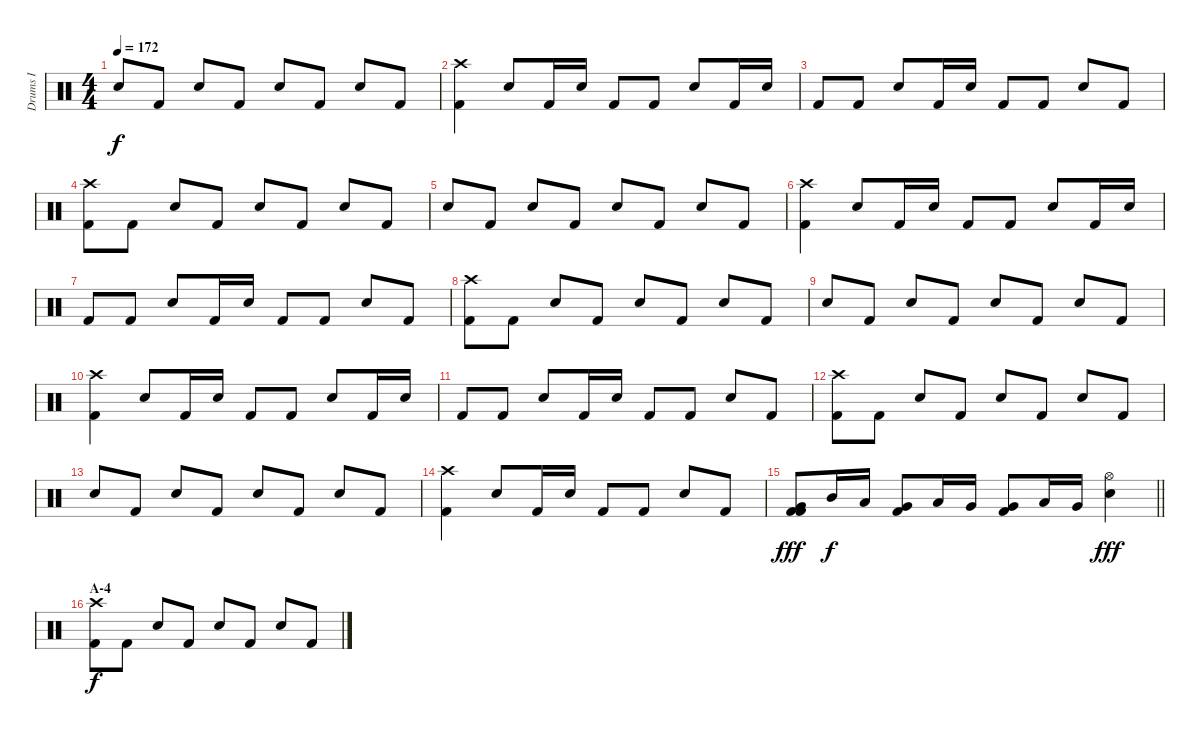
\track ("Drums I" "Drums I") {instrument percussion}
\staff {score}
\articulation defaults
\ts (4 4)
\tempo 172
\clef neutral
\ks c "Electric Snare (hit)".8{dy f} "Kick (hit) 2".8 "Electric Snare (hit)".8 "Kick (hit) 2".8 "Electric Snare (hit)".8 "Kick (hit) 2".8 "Electric Snare (hit)".8 "Kick (hit) 2".8
|
("Crash high (hit)" "Kick (hit) 2").4 "Electric Snare (hit)".8 "Kick (hit) 2".16 "Electric Snare (hit)".16 "Kick (hit) 2".8 "Kick (hit) 2".8 "Electric Snare (hit)".8 "Kick (hit) 2".16 "Electric Snare (hit)".16 |
"Kick (hit) 2".8 "Kick (hit) 2".8 "Electric Snare (hit)".8 "Kick (hit) 2".16 "Electric Snare (hit)".16 "Kick (hit) 2".8 "Kick (hit) 2".8 "Electric Snare (hit)".8 "Kick (hit) 2".8 |
("Crash high (hit)" "Kick (hit) 2").8 "Kick (hit) 2".8 "Electric Snare (hit)".8 "Kick (hit) 2".8 "Electric Snare (hit)".8 "Kick (hit) 2".8 "Electric Snare (hit)".8 "Kick (hit) 2".8 |
"Electric Snare (hit)".8 "Kick (hit) 2".8 "Electric Snare (hit)".8 "Kick (hit) 2".8 "Electric Snare (hit)".8 "Kick (hit) 2".8 "Electric Snare (hit)".8 "Kick (hit) 2".8 |
("Crash high (hit)" "Kick (hit) 2").4 "Electric Snare (hit)".8 "Kick (hit) 2".16 "Electric Snare (hit)".16 "Kick (hit) 2".8 "Kick (hit) 2".8 "Electric Snare (hit)".8 "Kick (hit) 2".16 "Electric Snare (hit)".16 |
"Kick (hit) 2".8 "Kick (hit) 2".8 "Electric Snare (hit)".8 "Kick (hit) 2".16 "Electric Snare (hit)".16 "Kick (hit) 2".8 "Kick (hit) 2".8 "Electric Snare (hit)".8 "Kick (hit) 2".8 |
("Crash high (hit)" "Kick (hit) 2").8 "Kick (hit) 2".8 "Electric Snare (hit)".8 "Kick (hit) 2".8 "Electric Snare (hit)".8 "Kick (hit) 2".8 "Electric Snare (hit)".8 "Kick (hit) 2".8 |
"Electric Snare (hit)".8 "Kick (hit) 2".8 "Electric Snare (hit)".8 "Kick (hit) 2".8 "Electric Snare (hit)".8 "Kick (hit) 2".8 "Electric Snare (hit)".8 "Kick (hit) 2".8 |
("Crash high (hit)" "Kick (hit) 2").4 "Electric Snare (hit)".8 "Kick (hit) 2".16 "Electric Snare (hit)".16 "Kick (hit) 2".8 "Kick (hit) 2".8 "Electric Snare (hit)".8 "Kick (hit) 2".16 "Electric Snare (hit)".16 |
"Kick (hit) 2".8 "Kick (hit) 2".8 "Electric Snare (hit)".8 "Kick (hit) 2".16 "Electric Snare (hit)".16 "Kick (hit) 2".8 "Kick (hit) 2".8 "Electric Snare (hit)".8 "Kick (hit) 2".8 |
("Crash high (hit)" "Kick (hit) 2").8 "Kick (hit) 2".8 "Electric Snare (hit)".8 "Kick (hit) 2".8 "Electric Snare (hit)".8 "Kick (hit) 2".8 "Electric Snare (hit)".8 "Kick (hit) 2".8 |
"Electric Snare (hit)".8 "Kick (hit) 2".8 "Electric Snare (hit)".8 "Kick (hit) 2".8 "Electric Snare (hit)".8 "Kick (hit) 2".8 "Electric Snare (hit)".8 "Kick (hit) 2".8 |
("Crash high (hit)" "Kick (hit) 2").4 "Electric Snare (hit)".8 "Kick (hit) 2".16 "Electric Snare (hit)".16 "Kick (hit) 2".8 "Kick (hit) 2".8 "Electric Snare (hit)".8 "Kick (hit) 2".8 |
\barLineRight lightlight
("Kick (hit) 2" "Very Low Tom (hit)" "Kick (hit) 2").8{dy fff} "Mid Tom (hit)".16{dy f} "Low Tom (hit)".16 ("Very Low Tom (hit)" "Kick (hit) 2").8 "Low Tom (hit)".16 "Very Low Tom (hit)".16 ("Very Low Tom (hit)" "Kick (hit) 2").8 "Low Tom (hit)".16 "Very Low Tom (hit)".16 ("Hi-Hat (open)" "Electric Snare (hit)").4{dy fff} |
\section ("" "A-4")
("Crash high (hit)" "Kick (hit) 2").8{dy f} "Kick (hit) 2".8 "Electric Snare (hit)".8 "Kick (hit) 2".8 "Electric Snare (hit)".8 "Kick (hit) 2".8 "Electric Snare (hit)".8 "Kick (hit) 2".8
